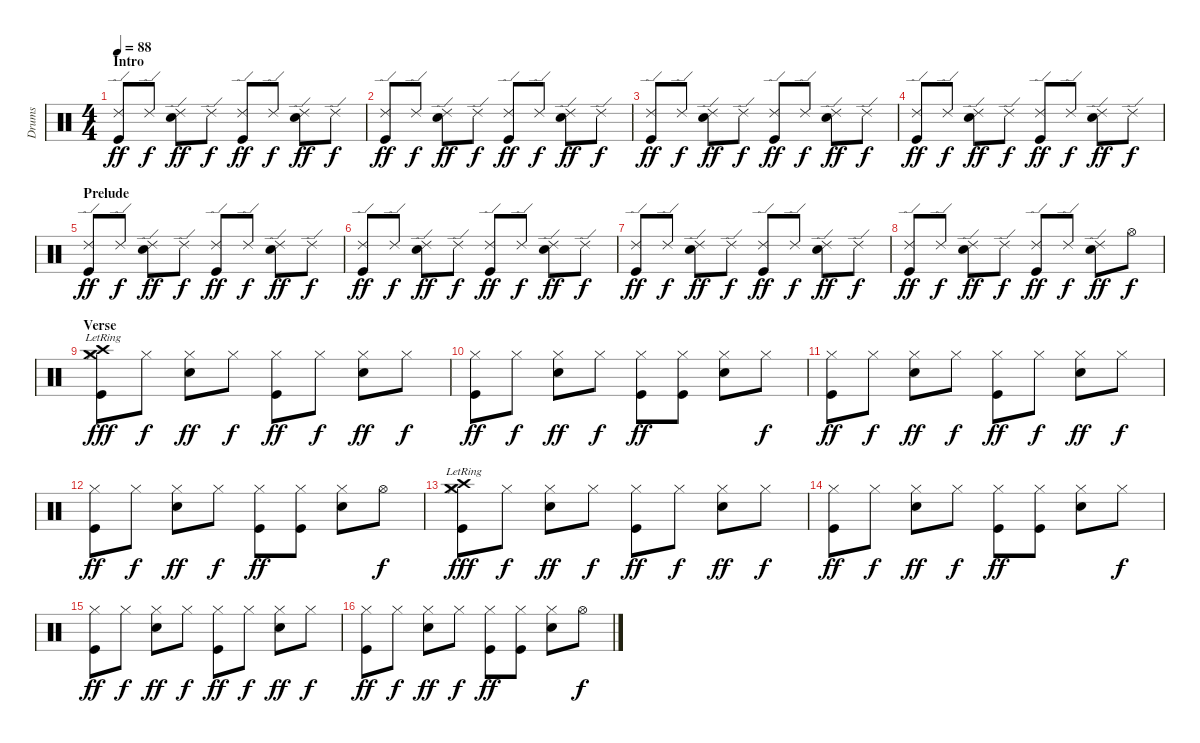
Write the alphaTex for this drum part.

\track ("Drums" "Drums") {instrument percussion}
\staff {score}
\articulation defaults
\ts (4 4)
\section ("" "Intro")
\tempo 88
\clef neutral
\ks c
("Ride (edge) 2" "Kick (hit)").8{dy ff} "Ride (edge) 2".8{dy f} ("Ride (edge) 2" "Snare (hit) 2").8{dy ff} "Ride (edge) 2".8{dy f} ("Ride (edge) 2" "Kick (hit)").8{dy ff} "Ride (edge) 2".8{dy f} ("Ride (edge) 2" "Snare (hit) 2").8{dy ff} "Ride (edge) 2".8{dy f} |
("Ride (edge) 2" "Kick (hit)").8{dy ff} "Ride (edge) 2".8{dy f} ("Ride (edge) 2" "Snare (hit) 2").8{dy ff} "Ride (edge) 2".8{dy f} ("Ride (edge) 2" "Kick (hit)").8{dy ff} "Ride (edge) 2".8{dy f} ("Ride (edge) 2" "Snare (hit) 2").8{dy ff} "Ride (edge) 2".8{dy f} |
("Ride (edge) 2" "Kick (hit)").8{dy ff} "Ride (edge) 2".8{dy f} ("Ride (edge) 2" "Snare (hit) 2").8{dy ff} "Ride (edge) 2".8{dy f} ("Ride (edge) 2" "Kick (hit)").8{dy ff} "Ride (edge) 2".8{dy f} ("Ride (edge) 2" "Snare (hit) 2").8{dy ff} "Ride (edge) 2".8{dy f} |
("Ride (edge) 2" "Kick (hit)").8{dy ff} "Ride (edge) 2".8{dy f} ("Ride (edge) 2" "Snare (hit) 2").8{dy ff} "Ride (edge) 2".8{dy f} ("Ride (edge) 2" "Kick (hit)").8{dy ff} "Ride (edge) 2".8{dy f} ("Ride (edge) 2" "Snare (hit) 2").8{dy ff} "Ride (edge) 2".8{dy f} |
\section ("" "Prelude")
("Ride (edge) 2" "Kick (hit)").8{dy ff} "Ride (edge) 2".8{dy f} ("Ride (edge) 2" "Snare (hit) 2").8{dy ff} "Ride (edge) 2".8{dy f} ("Ride (edge) 2" "Kick (hit)").8{dy ff} "Ride (edge) 2".8{dy f} ("Ride (edge) 2" "Snare (hit) 2").8{dy ff} "Ride (edge) 2".8{dy f} |
("Ride (edge) 2" "Kick (hit)").8{dy ff} "Ride (edge) 2".8{dy f} ("Ride (edge) 2" "Snare (hit) 2").8{dy ff} "Ride (edge) 2".8{dy f} ("Ride (edge) 2" "Kick (hit)").8{dy ff} "Ride (edge) 2".8{dy f} ("Ride (edge) 2" "Snare (hit) 2").8{dy ff} "Ride (edge) 2".8{dy f} |
("Ride (edge) 2" "Kick (hit)").8{dy ff} "Ride (edge) 2".8{dy f} ("Ride (edge) 2" "Snare (hit) 2").8{dy ff} "Ride (edge) 2".8{dy f} ("Ride (edge) 2" "Kick (hit)").8{dy ff} "Ride (edge) 2".8{dy f} ("Ride (edge) 2" "Snare (hit) 2").8{dy ff} "Ride (edge) 2".8{dy f} |
("Ride (edge) 2" "Kick (hit)").8{dy ff} "Ride (edge) 2".8{dy f} ("Ride (edge) 2" "Snare (hit) 2").8{dy ff} "Ride (edge) 2".8{dy f} ("Ride (edge) 2" "Kick (hit)").8{dy ff} "Ride (edge) 2".8{dy f} ("Ride (edge) 2" "Snare (hit) 2").8{dy ff} "Hi-Hat (open)".8{dy f} |
\section ("" "Verse")
("Hi-Hat (closed)" "Kick (hit)" "Crash medium (hit)"{lr} "Crash high (hit)"{lr}).8{dy fff} "Hi-Hat (closed)".8{dy f} ("Hi-Hat (closed)" "Snare (hit) 2").8{dy ff} "Hi-Hat (closed)".8{dy f} ("Hi-Hat (closed)" "Kick (hit)").8{dy ff} "Hi-Hat (closed)".8{dy f} ("Hi-Hat (closed)" "Snare (hit) 2").8{dy ff} "Hi-Hat (closed)".8{dy f} |
("Hi-Hat (closed)" "Kick (hit)").8{dy ff} "Hi-Hat (closed)".8{dy f} ("Hi-Hat (closed)" "Snare (hit) 2").8{dy ff} "Hi-Hat (closed)".8{dy f} ("Hi-Hat (closed)" "Kick (hit)").8{dy ff} ("Hi-Hat (closed)" "Kick (hit)").8 ("Hi-Hat (closed)" "Snare (hit) 2").8 "Hi-Hat (closed)".8{dy f} |
("Hi-Hat (closed)" "Kick (hit)").8{dy ff} "Hi-Hat (closed)".8{dy f} ("Hi-Hat (closed)" "Snare (hit) 2").8{dy ff} "Hi-Hat (closed)".8{dy f} ("Hi-Hat (closed)" "Kick (hit)").8{dy ff} "Hi-Hat (closed)".8{dy f} ("Hi-Hat (closed)" "Snare (hit) 2").8{dy ff} "Hi-Hat (closed)".8{dy f} |
("Hi-Hat (closed)" "Kick (hit)").8{dy ff} "Hi-Hat (closed)".8{dy f} ("Hi-Hat (closed)" "Snare (hit) 2").8{dy ff} "Hi-Hat (closed)".8{dy f} ("Hi-Hat (closed)" "Kick (hit)").8{dy ff} ("Hi-Hat (closed)" "Kick (hit)").8 ("Hi-Hat (closed)" "Snare (hit) 2").8 "Hi-Hat (open)".8{dy f} |
("Hi-Hat (closed)" "Kick (hit)" "Crash medium (hit)"{lr} "Crash high (hit)"{lr}).8{dy fff} "Hi-Hat (closed)".8{dy f} ("Hi-Hat (closed)" "Snare (hit) 2").8{dy ff} "Hi-Hat (closed)".8{dy f} ("Hi-Hat (closed)" "Kick (hit)").8{dy ff} "Hi-Hat (closed)".8{dy f} ("Hi-Hat (closed)" "Snare (hit) 2").8{dy ff} "Hi-Hat (closed)".8{dy f} |
("Hi-Hat (closed)" "Kick (hit)").8{dy ff} "Hi-Hat (closed)".8{dy f} ("Hi-Hat (closed)" "Snare (hit) 2").8{dy ff} "Hi-Hat (closed)".8{dy f} ("Hi-Hat (closed)" "Kick (hit)").8{dy ff} ("Hi-Hat (closed)" "Kick (hit)").8 ("Hi-Hat (closed)" "Snare (hit) 2").8 "Hi-Hat (closed)".8{dy f} |
("Hi-Hat (closed)" "Kick (hit)").8{dy ff} "Hi-Hat (closed)".8{dy f} ("Hi-Hat (closed)" "Snare (hit) 2").8{dy ff} "Hi-Hat (closed)".8{dy f} ("Hi-Hat (closed)" "Kick (hit)").8{dy ff} "Hi-Hat (closed)".8{dy f} ("Hi-Hat (closed)" "Snare (hit) 2").8{dy ff} "Hi-Hat (closed)".8{dy f} |
("Hi-Hat (closed)" "Kick (hit)").8{dy ff} "Hi-Hat (closed)".8{dy f} ("Hi-Hat (closed)" "Snare (hit) 2").8{dy ff} "Hi-Hat (closed)".8{dy f} ("Hi-Hat (closed)" "Kick (hit)").8{dy ff} ("Hi-Hat (closed)" "Kick (hit)").8 ("Hi-Hat (closed)" "Snare (hit) 2").8 "Hi-Hat (open)".8{dy f}
